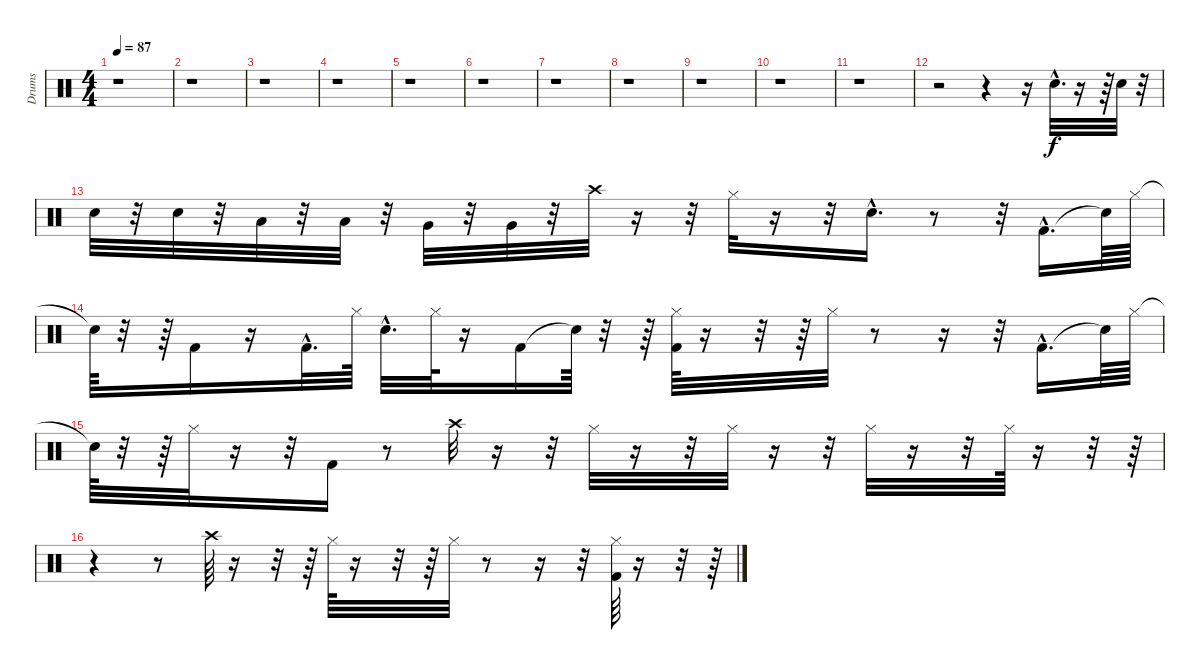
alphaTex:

\track ("Drums" "Drums") {instrument percussion}
\staff {score}
\articulation defaults
\ts (4 4)
\tempo 87
\clef neutral
\ks c
r.1{dy f} |
r.1 |
r.1 |
r.1 |
r.1 |
r.1 |
r.1 |
r.1 |
r.1 |
r.1 |
r.1 |
r.2 r.4 r.16 "Electric Snare (hit)"{hac}.32{d} r.16 r.64 "Electric Snare (hit)".32 r.32 |
"Electric Snare (hit)".32 r.32 "Electric Snare (hit)".32 r.32 "Low Tom (hit)".32 r.32 "Low Tom (hit)".32 r.32 "Very Low Tom (hit)".32 r.32 "Very Low Tom (hit)".32 r.32 "Crash high (hit)".32 r.16 r.32 "Hi-Hat (closed)".32 r.16 r.32 "Electric Snare (hit)"{hac}.16{d} r.8 r.32 "Kick (hit) 2"{hac}.16{d} "Snare (hit)"{t}.64 "Hi-Hat (closed)".64 |
"Snare (hit)"{t}.64 r.32 r.64 "Kick (hit) 2".16 r.16 "Kick (hit) 2"{hac}.32{d} "Hi-Hat (closed)".64 "Electric Snare (hit)"{hac}.32{d} "Hi-Hat (closed)".64 r.16 "Kick (hit) 2".16 "Snare (hit)"{t}.64 r.32 r.64 ("Kick (hit) 2" "Hi-Hat (closed)").64 r.16 r.32 r.64 "Hi-Hat (closed)".32 r.8 r.16 r.32 "Kick (hit) 2"{hac}.16{d} "Snare (hit)"{t}.64 "Hi-Hat (closed)".64 |
"Snare (hit)"{t}.64 r.32 r.64 "Hi-Hat (closed)".32 r.16 r.32 "Kick (hit) 2".16 r.8 "Crash high (hit)".32 r.16 r.32 "Hi-Hat (closed)".32 r.16 r.32 "Hi-Hat (closed)".32 r.16 r.32 "Hi-Hat (closed)".32 r.16 r.32 "Hi-Hat (closed)".64 r.16 r.32 r.64 |
r.4 r.8 "Crash high (hit)".64 r.16 r.32 r.64 "Hi-Hat (closed)".64 r.16 r.32 r.64 "Hi-Hat (closed)".32 r.8 r.16 r.32 ("Kick (hit) 2" "Hi-Hat (closed)").64 r.16 r.32 r.64
